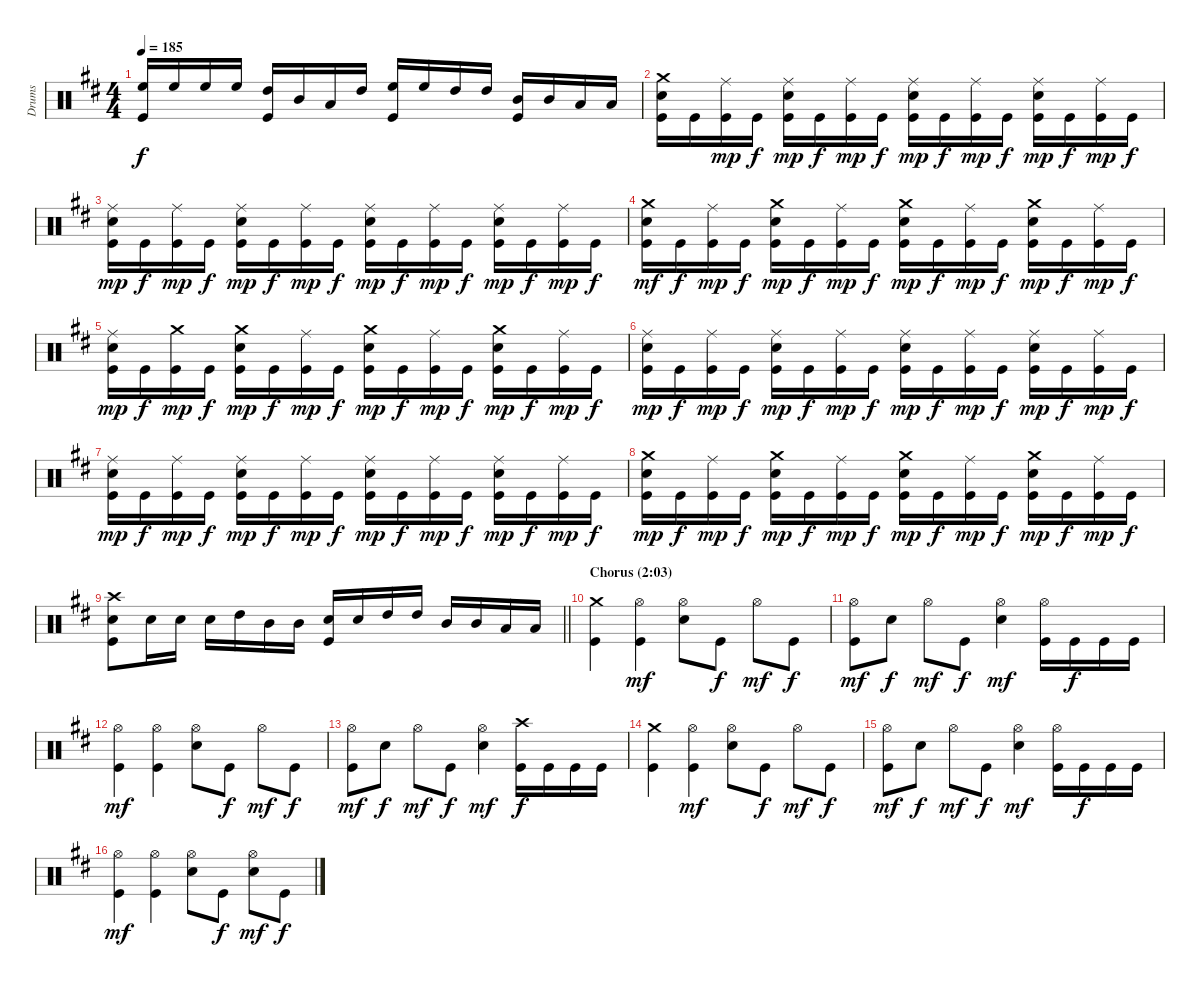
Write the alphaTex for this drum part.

\track ("Drums" "Drums") {instrument percussion}
\staff {score}
\articulation defaults
\ts (4 4)
\tempo 185
\clef neutral
\ks bminor
("High Floor Tom (hit)" "Kick (hit)").16{dy f} "High Floor Tom (hit)".16 "High Floor Tom (hit)".16 "High Floor Tom (hit)".16 ("High Tom (hit)" "Kick (hit)").16 "Mid Tom (hit)".16 "Low Tom (hit)".16 "High Tom (hit)".16 ("High Floor Tom (hit)" "Kick (hit)").16 "High Floor Tom (hit)".16 "High Tom (hit)".16 "High Tom (hit)".16 ("Mid Tom (hit)" "Kick (hit)").16 "Mid Tom (hit)".16 "Low Tom (hit)".16 "Low Tom (hit)".16 |
("Crash medium (hit)" "Snare (hit) 2" "Kick (hit)").16 "Kick (hit)".16 ("Ride (middle)" "Kick (hit)").16{dy mp} "Kick (hit)".16{dy f} ("Ride (middle)" "Snare (hit) 2" "Kick (hit)").16{dy mp} "Kick (hit)".16{dy f} ("Ride (middle)" "Kick (hit)").16{dy mp} "Kick (hit)".16{dy f} ("Ride (middle)" "Snare (hit) 2" "Kick (hit)").16{dy mp} "Kick (hit)".16{dy f} ("Ride (middle)" "Kick (hit)").16{dy mp} "Kick (hit)".16{dy f} ("Ride (middle)" "Snare (hit) 2" "Kick (hit)").16{dy mp} "Kick (hit)".16{dy f} ("Ride (middle)" "Kick (hit)").16{dy mp} "Kick (hit)".16{dy f} |
("Ride (middle)" "Snare (hit) 2" "Kick (hit)").16{dy mp} "Kick (hit)".16{dy f} ("Ride (middle)" "Kick (hit)").16{dy mp} "Kick (hit)".16{dy f} ("Ride (middle)" "Snare (hit) 2" "Kick (hit)").16{dy mp} "Kick (hit)".16{dy f} ("Ride (middle)" "Kick (hit)").16{dy mp} "Kick (hit)".16{dy f} ("Ride (middle)" "Snare (hit) 2" "Kick (hit)").16{dy mp} "Kick (hit)".16{dy f} ("Ride (middle)" "Kick (hit)").16{dy mp} "Kick (hit)".16{dy f} ("Ride (middle)" "Snare (hit) 2" "Kick (hit)").16{dy mp} "Kick (hit)".16{dy f} ("Ride (middle)" "Kick (hit)").16{dy mp} "Kick (hit)".16{dy f} |
("Crash medium (hit)" "Snare (hit) 2" "Kick (hit)").16{dy mf} "Kick (hit)".16{dy f} ("Ride (middle)" "Kick (hit)").16{dy mp} "Kick (hit)".16{dy f} ("Crash medium (hit)" "Snare (hit) 2" "Kick (hit)").16{dy mp} "Kick (hit)".16{dy f} ("Ride (middle)" "Kick (hit)").16{dy mp} "Kick (hit)".16{dy f} ("Crash medium (hit)" "Snare (hit) 2" "Kick (hit)").16{dy mp} "Kick (hit)".16{dy f} ("Ride (middle)" "Kick (hit)").16{dy mp} "Kick (hit)".16{dy f} ("Crash medium (hit)" "Snare (hit) 2" "Kick (hit)").16{dy mp} "Kick (hit)".16{dy f} ("Ride (middle)" "Kick (hit)").16{dy mp} "Kick (hit)".16{dy f} |
("Ride (middle)" "Snare (hit) 2" "Kick (hit)").16{dy mp} "Kick (hit)".16{dy f} ("Crash medium (hit)" "Kick (hit)").16{dy mp} "Kick (hit)".16{dy f} ("Crash medium (hit)" "Snare (hit) 2" "Kick (hit)").16{dy mp} "Kick (hit)".16{dy f} ("Ride (middle)" "Kick (hit)").16{dy mp} "Kick (hit)".16{dy f} ("Crash medium (hit)" "Snare (hit) 2" "Kick (hit)").16{dy mp} "Kick (hit)".16{dy f} ("Ride (middle)" "Kick (hit)").16{dy mp} "Kick (hit)".16{dy f} ("Crash medium (hit)" "Snare (hit) 2" "Kick (hit)").16{dy mp} "Kick (hit)".16{dy f} ("Ride (middle)" "Kick (hit)").16{dy mp} "Kick (hit)".16{dy f} |
("Ride (middle)" "Snare (hit) 2" "Kick (hit)").16{dy mp} "Kick (hit)".16{dy f} ("Ride (middle)" "Kick (hit)").16{dy mp} "Kick (hit)".16{dy f} ("Ride (middle)" "Snare (hit) 2" "Kick (hit)").16{dy mp} "Kick (hit)".16{dy f} ("Ride (middle)" "Kick (hit)").16{dy mp} "Kick (hit)".16{dy f} ("Ride (middle)" "Snare (hit) 2" "Kick (hit)").16{dy mp} "Kick (hit)".16{dy f} ("Ride (middle)" "Kick (hit)").16{dy mp} "Kick (hit)".16{dy f} ("Ride (middle)" "Snare (hit) 2" "Kick (hit)").16{dy mp} "Kick (hit)".16{dy f} ("Ride (middle)" "Kick (hit)").16{dy mp} "Kick (hit)".16{dy f} |
("Ride (middle)" "Snare (hit) 2" "Kick (hit)").16{dy mp} "Kick (hit)".16{dy f} ("Ride (middle)" "Kick (hit)").16{dy mp} "Kick (hit)".16{dy f} ("Ride (middle)" "Snare (hit) 2" "Kick (hit)").16{dy mp} "Kick (hit)".16{dy f} ("Ride (middle)" "Kick (hit)").16{dy mp} "Kick (hit)".16{dy f} ("Ride (middle)" "Snare (hit) 2" "Kick (hit)").16{dy mp} "Kick (hit)".16{dy f} ("Ride (middle)" "Kick (hit)").16{dy mp} "Kick (hit)".16{dy f} ("Ride (middle)" "Snare (hit) 2" "Kick (hit)").16{dy mp} "Kick (hit)".16{dy f} ("Ride (middle)" "Kick (hit)").16{dy mp} "Kick (hit)".16{dy f} |
("Crash medium (hit)" "Snare (hit) 2" "Kick (hit)").16{dy mp} "Kick (hit)".16{dy f} ("Ride (middle)" "Kick (hit)").16{dy mp} "Kick (hit)".16{dy f} ("Crash medium (hit)" "Snare (hit) 2" "Kick (hit)").16{dy mp} "Kick (hit)".16{dy f} ("Ride (middle)" "Kick (hit)").16{dy mp} "Kick (hit)".16{dy f} ("Crash medium (hit)" "Snare (hit) 2" "Kick (hit)").16{dy mp} "Kick (hit)".16{dy f} ("Ride (middle)" "Kick (hit)").16{dy mp} "Kick (hit)".16{dy f} ("Crash medium (hit)" "Snare (hit) 2" "Kick (hit)").16{dy mp} "Kick (hit)".16{dy f} ("Ride (middle)" "Kick (hit)").16{dy mp} "Kick (hit)".16{dy f} |
\barLineRight lightlight
("Crash high (hit)" "Snare (hit) 2" "Kick (hit)").8 "Snare (hit) 2".16 "Snare (hit) 2".16 "Snare (hit) 2".16 "High Tom (hit)".16 "Mid Tom (hit)".16 "Mid Tom (hit)".16 ("Snare (hit) 2" "Kick (hit)").16 "Snare (hit) 2".16 "High Tom (hit)".16 "High Tom (hit)".16 "Mid Tom (hit)".16 "Mid Tom (hit)".16 "Low Tom (hit)".16 "Low Tom (hit)".16 |
\section ("" "Chorus (2:03)")
("Crash medium (hit)" "Kick (hit)").4 ("Hi-Hat (open)" "Kick (hit)").4{dy mf} ("Hi-Hat (open)" "Snare (hit) 2").8 "Kick (hit)".8{dy f} "Hi-Hat (open)".8{dy mf} "Kick (hit)".8{dy f} |
("Hi-Hat (open)" "Kick (hit)").8{dy mf} "Snare (hit) 2".8{dy f} "Hi-Hat (open)".8{dy mf} "Kick (hit)".8{dy f} ("Hi-Hat (open)" "Snare (hit) 2").4{dy mf} ("Hi-Hat (open)" "Kick (hit)").16 "Kick (hit)".16{dy f} "Kick (hit)".16 "Kick (hit)".16 |
("Hi-Hat (open)" "Kick (hit)").4{dy mf} ("Hi-Hat (open)" "Kick (hit)").4 ("Hi-Hat (open)" "Snare (hit) 2").8 "Kick (hit)".8{dy f} "Hi-Hat (open)".8{dy mf} "Kick (hit)".8{dy f} |
("Hi-Hat (open)" "Kick (hit)").8{dy mf} "Snare (hit) 2".8{dy f} "Hi-Hat (open)".8{dy mf} "Kick (hit)".8{dy f} ("Hi-Hat (open)" "Snare (hit) 2").4{dy mf} ("Crash high (hit)" "Kick (hit)").16{dy f} "Kick (hit)".16 "Kick (hit)".16 "Kick (hit)".16 |
("Crash medium (hit)" "Kick (hit)").4 ("Hi-Hat (open)" "Kick (hit)").4{dy mf} ("Hi-Hat (open)" "Snare (hit) 2").8 "Kick (hit)".8{dy f} "Hi-Hat (open)".8{dy mf} "Kick (hit)".8{dy f} |
("Hi-Hat (open)" "Kick (hit)").8{dy mf} "Snare (hit) 2".8{dy f} "Hi-Hat (open)".8{dy mf} "Kick (hit)".8{dy f} ("Hi-Hat (open)" "Snare (hit) 2").4{dy mf} ("Hi-Hat (open)" "Kick (hit)").16 "Kick (hit)".16{dy f} "Kick (hit)".16 "Kick (hit)".16 |
("Hi-Hat (open)" "Kick (hit)").4{dy mf} ("Hi-Hat (open)" "Kick (hit)").4 ("Hi-Hat (open)" "Snare (hit) 2").8 "Kick (hit)".8{dy f} ("Hi-Hat (open)" "Snare (hit) 2").8{dy mf} "Kick (hit)".8{dy f}
